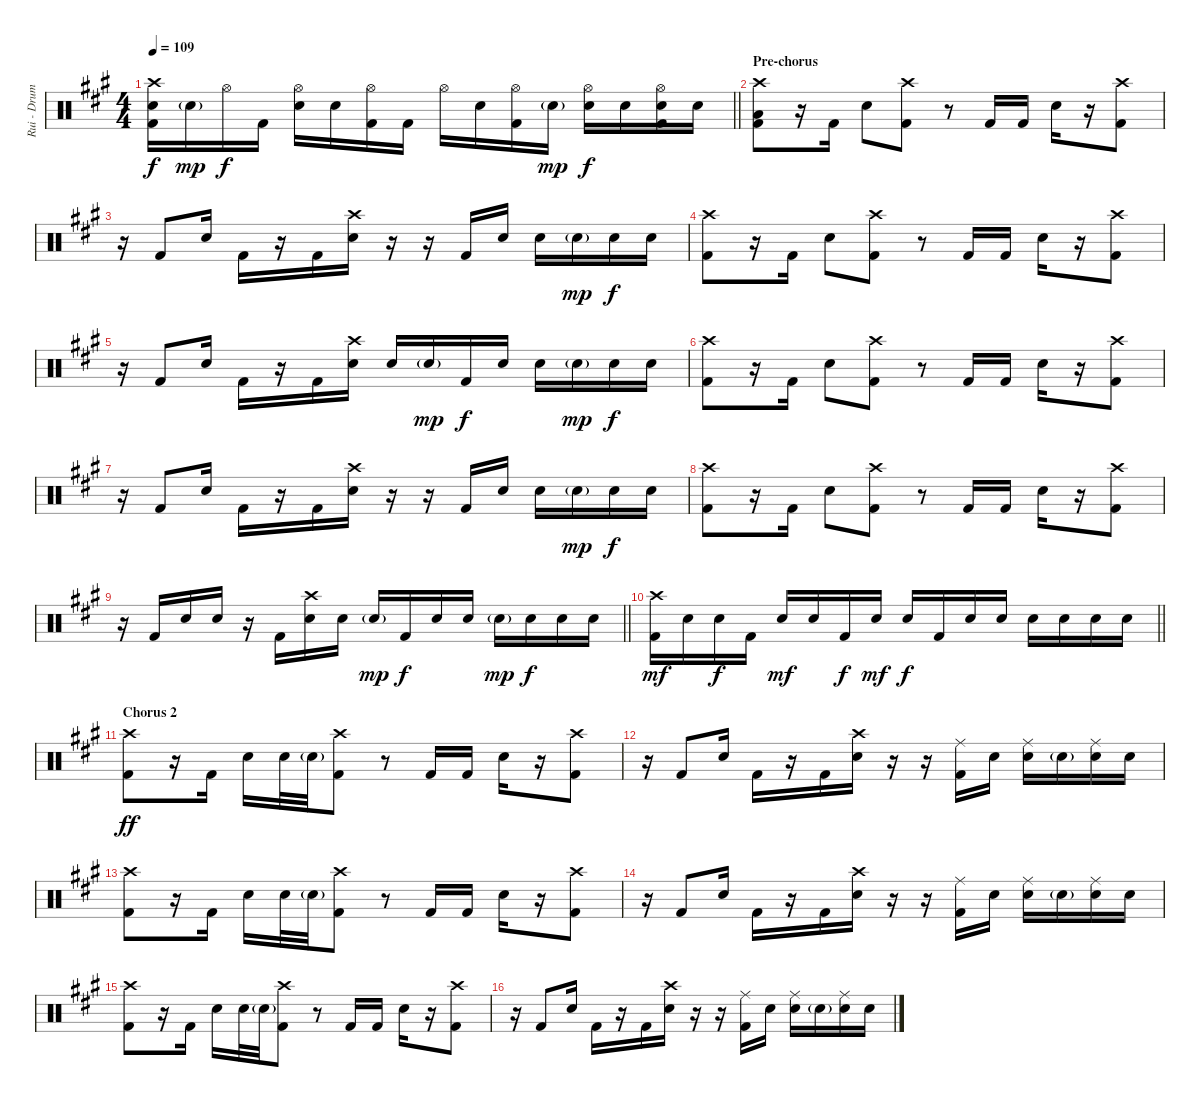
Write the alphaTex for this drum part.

\track ("Rui - Drums" "Rui - Drum") {instrument percussion}
\staff {score}
\articulation defaults
\ts (4 4)
\tempo 109
\clef neutral
\barLineRight lightlight
\ks f#minor
("Crash high (hit)" "Electric Snare (hit)" "Kick (hit) 2").16{dy f} "Electric Snare (hit)"{g}.16{dy mp} "Hi-Hat (open)".16{dy f} "Kick (hit) 2".16 ("Hi-Hat (open)" "Electric Snare (hit)").16 "Electric Snare (hit)".16 ("Hi-Hat (open)" "Kick (hit) 2").16 "Kick (hit) 2".16 "Hi-Hat (open)".16 "Electric Snare (hit)".16 ("Hi-Hat (open)" "Kick (hit) 2").16 "Electric Snare (hit)"{g}.16{dy mp} ("Hi-Hat (open)" "Electric Snare (hit)").16{dy f} "Electric Snare (hit)".16 ("Hi-Hat (open)" "Electric Snare (hit)" "Kick (hit) 2").16 "Electric Snare (hit)".16 |
\section ("" "Pre-chorus")
("Crash high (hit)" "Kick (hit) 2" "Low Floor Tom (hit)").8 r.16 "Kick (hit) 2".16 "Electric Snare (hit)".8 ("Crash high (hit)" "Kick (hit) 2").8 r.8 "Kick (hit) 2".16 "Kick (hit) 2".16 "Electric Snare (hit)".16 r.16 ("Crash high (hit)" "Kick (hit) 2").8 |
r.16 "Kick (hit) 2".8 "Electric Snare (hit)".16 "Kick (hit) 2".16 r.16 "Kick (hit) 2".16 ("Crash high (hit)" "Electric Snare (hit)").16 r.16 r.16 "Kick (hit) 2".16 "Electric Snare (hit)".16 "Electric Snare (hit)".16 "Electric Snare (hit)"{g}.16{dy mp} "Electric Snare (hit)".16{dy f} "Electric Snare (hit)".16 |
("Crash high (hit)" "Kick (hit) 2").8 r.16 "Kick (hit) 2".16 "Electric Snare (hit)".8 ("Crash high (hit)" "Kick (hit) 2").8 r.8 "Kick (hit) 2".16 "Kick (hit) 2".16 "Electric Snare (hit)".16 r.16 ("Crash high (hit)" "Kick (hit) 2").8 |
r.16 "Kick (hit) 2".8 "Electric Snare (hit)".16 "Kick (hit) 2".16 r.16 "Kick (hit) 2".16 ("Crash high (hit)" "Electric Snare (hit)").16 "Electric Snare (hit)".16 "Electric Snare (hit)"{g}.16{dy mp} "Kick (hit) 2".16{dy f} "Electric Snare (hit)".16 "Electric Snare (hit)".16 "Electric Snare (hit)"{g}.16{dy mp} "Electric Snare (hit)".16{dy f} "Electric Snare (hit)".16 |
("Crash high (hit)" "Kick (hit) 2").8 r.16 "Kick (hit) 2".16 "Electric Snare (hit)".8 ("Crash high (hit)" "Kick (hit) 2").8 r.8 "Kick (hit) 2".16 "Kick (hit) 2".16 "Electric Snare (hit)".16 r.16 ("Crash high (hit)" "Kick (hit) 2").8 |
r.16 "Kick (hit) 2".8 "Electric Snare (hit)".16 "Kick (hit) 2".16 r.16 "Kick (hit) 2".16 ("Crash high (hit)" "Electric Snare (hit)").16 r.16 r.16 "Kick (hit) 2".16 "Electric Snare (hit)".16 "Electric Snare (hit)".16 "Electric Snare (hit)"{g}.16{dy mp} "Electric Snare (hit)".16{dy f} "Electric Snare (hit)".16 |
("Crash high (hit)" "Kick (hit) 2").8 r.16 "Kick (hit) 2".16 "Electric Snare (hit)".8 ("Crash high (hit)" "Kick (hit) 2").8 r.8 "Kick (hit) 2".16 "Kick (hit) 2".16 "Electric Snare (hit)".16 r.16 ("Crash high (hit)" "Kick (hit) 2").8 |
\barLineRight lightlight
r.16 "Kick (hit) 2".16 "Electric Snare (hit)".16 "Electric Snare (hit)".16 r.16 "Kick (hit) 2".16 ("Crash high (hit)" "Electric Snare (hit)").16 "Electric Snare (hit)".16 "Electric Snare (hit)"{g}.16{dy mp} "Kick (hit) 2".16{dy f} "Electric Snare (hit)".16 "Electric Snare (hit)".16 "Electric Snare (hit)"{g}.16{dy mp} "Electric Snare (hit)".16{dy f} "Electric Snare (hit)".16 "Electric Snare (hit)".16 |
\section ("" "")
\barLineRight lightlight
("Crash high (hit)" "Kick (hit) 2").16{dy mf} "Electric Snare (hit)".16 "Electric Snare (hit)".16{dy f} "Kick (hit) 2".16 "Electric Snare (hit)".16{dy mf} "Electric Snare (hit)".16 "Kick (hit) 2".16{dy f} "Electric Snare (hit)".16{dy mf} "Electric Snare (hit)".16{dy f} "Kick (hit) 2".16 "Electric Snare (hit)".16 "Electric Snare (hit)".16 "Electric Snare (hit)".16 "Electric Snare (hit)".16 "Electric Snare (hit)".16 "Electric Snare (hit)".16 |
\section ("" "Chorus 2")
("Crash high (hit)" "Kick (hit) 2").8{dy ff} r.16 "Kick (hit) 2".16 "Electric Snare (hit)".16 "Electric Snare (hit)".32 "Electric Snare (hit)"{g}.32 ("Crash high (hit)" "Kick (hit) 2").8 r.8 "Kick (hit) 2".16 "Kick (hit) 2".16 "Electric Snare (hit)".16 r.16 ("Crash high (hit)" "Kick (hit) 2").8 |
r.16 "Kick (hit) 2".8 "Electric Snare (hit)".16 "Kick (hit) 2".16 r.16 "Kick (hit) 2".16 ("Crash high (hit)" "Electric Snare (hit)").16 r.16 r.16 ("Ride (middle)" "Kick (hit) 2").16 "Electric Snare (hit)".16 ("Ride (middle)" "Electric Snare (hit)").16 "Electric Snare (hit)"{g}.16 ("Ride (middle)" "Electric Snare (hit)").16 "Electric Snare (hit)".16 |
("Crash high (hit)" "Kick (hit) 2").8 r.16 "Kick (hit) 2".16 "Electric Snare (hit)".16 "Electric Snare (hit)".32 "Electric Snare (hit)"{g}.32 ("Crash high (hit)" "Kick (hit) 2").8 r.8 "Kick (hit) 2".16 "Kick (hit) 2".16 "Electric Snare (hit)".16 r.16 ("Crash high (hit)" "Kick (hit) 2").8 |
r.16 "Kick (hit) 2".8 "Electric Snare (hit)".16 "Kick (hit) 2".16 r.16 "Kick (hit) 2".16 ("Crash high (hit)" "Electric Snare (hit)").16 r.16 r.16 ("Ride (middle)" "Kick (hit) 2").16 "Electric Snare (hit)".16 ("Ride (middle)" "Electric Snare (hit)").16 "Electric Snare (hit)"{g}.16 ("Ride (middle)" "Electric Snare (hit)").16 "Electric Snare (hit)".16 |
("Crash high (hit)" "Kick (hit) 2").8 r.16 "Kick (hit) 2".16 "Electric Snare (hit)".16 "Electric Snare (hit)".32 "Electric Snare (hit)"{g}.32 ("Crash high (hit)" "Kick (hit) 2").8 r.8 "Kick (hit) 2".16 "Kick (hit) 2".16 "Electric Snare (hit)".16 r.16 ("Crash high (hit)" "Kick (hit) 2").8 |
r.16 "Kick (hit) 2".8 "Electric Snare (hit)".16 "Kick (hit) 2".16 r.16 "Kick (hit) 2".16 ("Crash high (hit)" "Electric Snare (hit)").16 r.16 r.16 ("Ride (middle)" "Kick (hit) 2").16 "Electric Snare (hit)".16 ("Ride (middle)" "Electric Snare (hit)").16 "Electric Snare (hit)"{g}.16 ("Ride (middle)" "Electric Snare (hit)").16 "Electric Snare (hit)".16
